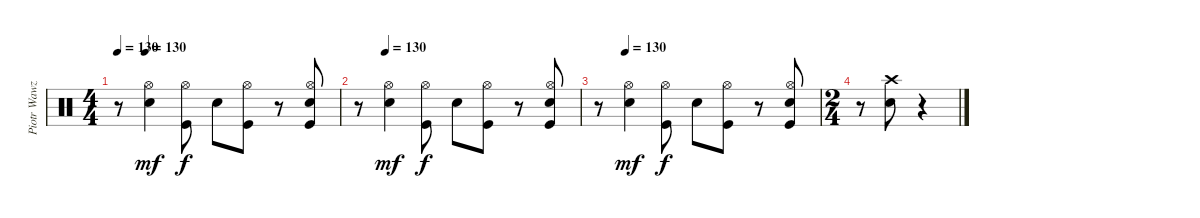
\track ("Piotr Wawzeniuk (Drums)" "Piotr Wawz") {instrument percussion}
\staff {score}
\articulation defaults
\ts (4 4)
\tempo 130
\tempo (130 0.125)
\clef neutral
\ks c
r.8{dy f} ("Electric Snare (hit)" "Hi-Hat (open)").4{dy mf} ("Kick (hit)" "Hi-Hat (open)").8{dy f} "Electric Snare (hit)".8 ("Kick (hit)" "Hi-Hat (open)").8 r.8 ("Kick (hit)" "Electric Snare (hit)" "Hi-Hat (open)").8 |
\tempo (130 0.125)
r.8 ("Electric Snare (hit)" "Hi-Hat (open)").4{dy mf} ("Kick (hit)" "Hi-Hat (open)").8{dy f} "Electric Snare (hit)".8 ("Kick (hit)" "Hi-Hat (open)").8 r.8 ("Kick (hit)" "Electric Snare (hit)" "Hi-Hat (open)").8 |
\tempo (130 0.125)
r.8 ("Electric Snare (hit)" "Hi-Hat (open)").4{dy mf} ("Kick (hit)" "Hi-Hat (open)").8{dy f} "Electric Snare (hit)".8 ("Kick (hit)" "Hi-Hat (open)").8 r.8 ("Kick (hit)" "Electric Snare (hit)" "Hi-Hat (open)").8 |
\ts (2 4)
r.8 ("Crash high (hit)" "Electric Snare (hit)").8 r.4
